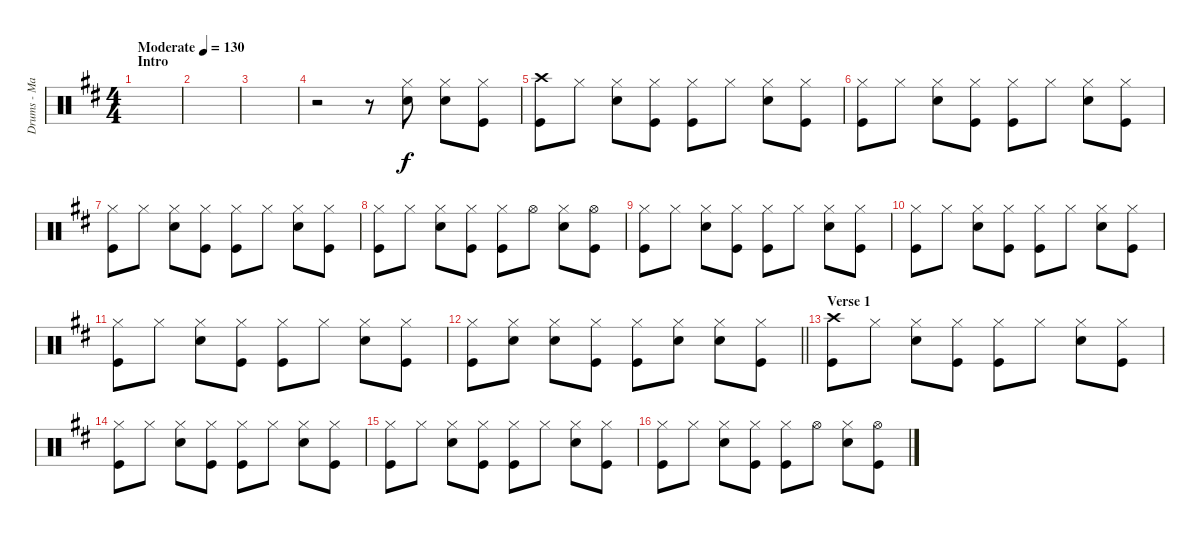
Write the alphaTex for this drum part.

\track ("Drums - Matt Helders" "Drums - Ma") {instrument percussion}
\staff {score}
\articulation defaults
\ts (4 4)
\section ("" "Intro")
\tempo (130 "Moderate")
\clef neutral
\ks d
|
|
|
r.2 r.8 ("Hi-Hat (closed)" "Snare (hit) 2").8 ("Hi-Hat (closed)" "Snare (hit) 2").8 ("Hi-Hat (closed)" "Kick (hit)").8 |
("Crash high (hit)" "Kick (hit)").8 "Hi-Hat (closed)".8 ("Hi-Hat (closed)" "Snare (hit) 2").8 ("Hi-Hat (closed)" "Kick (hit)").8 ("Hi-Hat (closed)" "Kick (hit)").8 "Hi-Hat (closed)".8 ("Hi-Hat (closed)" "Snare (hit) 2").8 ("Hi-Hat (closed)" "Kick (hit)").8 |
("Hi-Hat (closed)" "Kick (hit)").8 "Hi-Hat (closed)".8 ("Hi-Hat (closed)" "Snare (hit) 2").8 ("Hi-Hat (closed)" "Kick (hit)").8 ("Hi-Hat (closed)" "Kick (hit)").8 "Hi-Hat (closed)".8 ("Hi-Hat (closed)" "Snare (hit) 2").8 ("Hi-Hat (closed)" "Kick (hit)").8 |
("Hi-Hat (closed)" "Kick (hit)").8 "Hi-Hat (closed)".8 ("Hi-Hat (closed)" "Snare (hit) 2").8 ("Hi-Hat (closed)" "Kick (hit)").8 ("Hi-Hat (closed)" "Kick (hit)").8 "Hi-Hat (closed)".8 ("Hi-Hat (closed)" "Snare (hit) 2").8 ("Hi-Hat (closed)" "Kick (hit)").8 |
("Hi-Hat (closed)" "Kick (hit)").8 "Hi-Hat (closed)".8 ("Hi-Hat (closed)" "Snare (hit) 2").8 ("Hi-Hat (closed)" "Kick (hit)").8 ("Hi-Hat (closed)" "Kick (hit)").8 "Hi-Hat (open)".8 ("Hi-Hat (closed)" "Snare (hit) 2").8 ("Hi-Hat (open)" "Kick (hit)").8 |
("Hi-Hat (closed)" "Kick (hit)").8 "Hi-Hat (closed)".8 ("Hi-Hat (closed)" "Snare (hit) 2").8 ("Hi-Hat (closed)" "Kick (hit)").8 ("Hi-Hat (closed)" "Kick (hit)").8 "Hi-Hat (closed)".8 ("Hi-Hat (closed)" "Snare (hit) 2").8 ("Hi-Hat (closed)" "Kick (hit)").8 |
("Hi-Hat (closed)" "Kick (hit)").8 "Hi-Hat (closed)".8 ("Hi-Hat (closed)" "Snare (hit) 2").8 ("Hi-Hat (closed)" "Kick (hit)").8 ("Hi-Hat (closed)" "Kick (hit)").8 "Hi-Hat (closed)".8 ("Hi-Hat (closed)" "Snare (hit) 2").8 ("Hi-Hat (closed)" "Kick (hit)").8 |
("Hi-Hat (closed)" "Kick (hit)").8 "Hi-Hat (closed)".8 ("Hi-Hat (closed)" "Snare (hit) 2").8 ("Hi-Hat (closed)" "Kick (hit)").8 ("Hi-Hat (closed)" "Kick (hit)").8 "Hi-Hat (closed)".8 ("Hi-Hat (closed)" "Snare (hit) 2").8 ("Hi-Hat (closed)" "Kick (hit)").8 |
\barLineRight lightlight
("Hi-Hat (closed)" "Kick (hit)").8 ("Hi-Hat (closed)" "Snare (hit) 2").8 ("Hi-Hat (closed)" "Snare (hit) 2").8 ("Hi-Hat (closed)" "Kick (hit)").8 ("Hi-Hat (closed)" "Kick (hit)").8 ("Hi-Hat (closed)" "Snare (hit) 2").8 ("Hi-Hat (closed)" "Snare (hit) 2").8 ("Hi-Hat (closed)" "Kick (hit)").8 |
\section ("" "Verse 1")
("Crash high (hit)" "Kick (hit)").8 "Hi-Hat (closed)".8 ("Hi-Hat (closed)" "Snare (hit) 2").8 ("Hi-Hat (closed)" "Kick (hit)").8 ("Hi-Hat (closed)" "Kick (hit)").8 "Hi-Hat (closed)".8 ("Hi-Hat (closed)" "Snare (hit) 2").8 ("Hi-Hat (closed)" "Kick (hit)").8 |
("Hi-Hat (closed)" "Kick (hit)").8 "Hi-Hat (closed)".8 ("Hi-Hat (closed)" "Snare (hit) 2").8 ("Hi-Hat (closed)" "Kick (hit)").8 ("Hi-Hat (closed)" "Kick (hit)").8 "Hi-Hat (closed)".8 ("Hi-Hat (closed)" "Snare (hit) 2").8 ("Hi-Hat (closed)" "Kick (hit)").8 |
("Hi-Hat (closed)" "Kick (hit)").8 "Hi-Hat (closed)".8 ("Hi-Hat (closed)" "Snare (hit) 2").8 ("Hi-Hat (closed)" "Kick (hit)").8 ("Hi-Hat (closed)" "Kick (hit)").8 "Hi-Hat (closed)".8 ("Hi-Hat (closed)" "Snare (hit) 2").8 ("Hi-Hat (closed)" "Kick (hit)").8 |
("Hi-Hat (closed)" "Kick (hit)").8 "Hi-Hat (closed)".8 ("Hi-Hat (closed)" "Snare (hit) 2").8 ("Hi-Hat (closed)" "Kick (hit)").8 ("Hi-Hat (closed)" "Kick (hit)").8 "Hi-Hat (open)".8 ("Hi-Hat (closed)" "Snare (hit) 2").8 ("Hi-Hat (open)" "Kick (hit)").8
